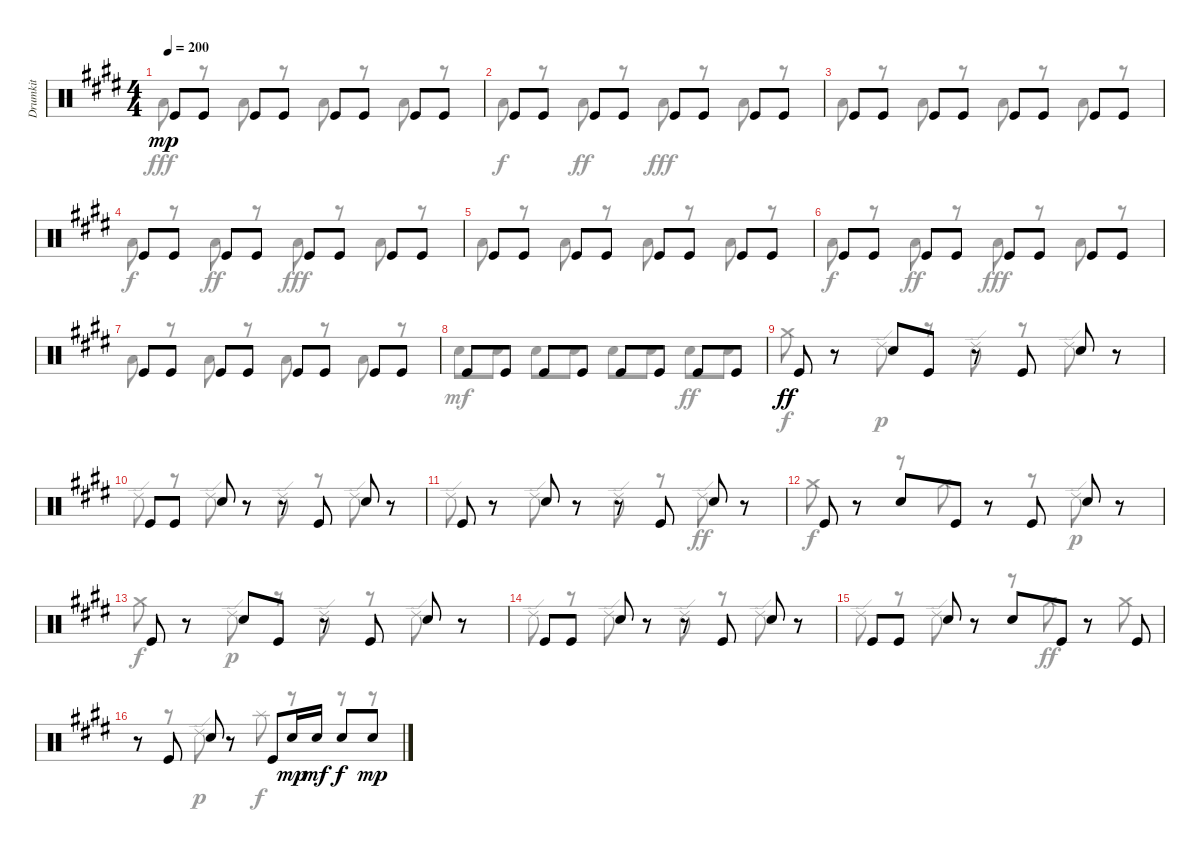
\track ("Drumkit" "Drumkit") {instrument percussion}
\staff {score}
\articulation defaults
\voice
\ts (4 4)
\tempo 200
\clef neutral
\ks c#minor "Kick (hit)".8{dy mp} "Kick (hit)".8 "Kick (hit)".8 "Kick (hit)".8 "Kick (hit)".8 "Kick (hit)".8 "Kick (hit)".8 "Kick (hit)".8
|
"Kick (hit)".8 "Kick (hit)".8 "Kick (hit)".8 "Kick (hit)".8 "Kick (hit)".8 "Kick (hit)".8 "Kick (hit)".8 "Kick (hit)".8 |
"Kick (hit)".8 "Kick (hit)".8 "Kick (hit)".8 "Kick (hit)".8 "Kick (hit)".8 "Kick (hit)".8 "Kick (hit)".8 "Kick (hit)".8 |
"Kick (hit)".8 "Kick (hit)".8 "Kick (hit)".8 "Kick (hit)".8 "Kick (hit)".8 "Kick (hit)".8 "Kick (hit)".8 "Kick (hit)".8 |
"Kick (hit)".8 "Kick (hit)".8 "Kick (hit)".8 "Kick (hit)".8 "Kick (hit)".8 "Kick (hit)".8 "Kick (hit)".8 "Kick (hit)".8 |
"Kick (hit)".8 "Kick (hit)".8 "Kick (hit)".8 "Kick (hit)".8 "Kick (hit)".8 "Kick (hit)".8 "Kick (hit)".8 "Kick (hit)".8 |
"Kick (hit)".8 "Kick (hit)".8 "Kick (hit)".8 "Kick (hit)".8 "Kick (hit)".8 "Kick (hit)".8 "Kick (hit)".8 "Kick (hit)".8 |
"Kick (hit)".8 "Kick (hit)".8 "Kick (hit)".8 "Kick (hit)".8 "Kick (hit)".8 "Kick (hit)".8 "Kick (hit)".8 "Kick (hit)".8 |
"Kick (hit)".8{dy ff} r.8 "Snare (hit) 2".8 "Kick (hit)".8 r.8 "Kick (hit)".8 "Snare (hit) 2".8 r.8 |
"Kick (hit)".8 "Kick (hit)".8 "Snare (hit) 2".8 r.8 r.8 "Kick (hit)".8 "Snare (hit) 2".8 r.8 |
"Kick (hit)".8 r.8 "Snare (hit) 2".8 r.8 r.8 "Kick (hit)".8 "Snare (hit) 2".8 r.8 |
"Kick (hit)".8 r.8 "Snare (hit) 2".8 "Kick (hit)".8 r.8 "Kick (hit)".8 "Snare (hit) 2".8 r.8 |
"Kick (hit)".8 r.8 "Snare (hit) 2".8 "Kick (hit)".8 r.8 "Kick (hit)".8 "Snare (hit) 2".8 r.8 |
"Kick (hit)".8 "Kick (hit)".8 "Snare (hit) 2".8 r.8 r.8 "Kick (hit)".8 "Snare (hit) 2".8 r.8 |
"Kick (hit)".8 "Kick (hit)".8 "Snare (hit) 2".8 r.8 "Snare (hit) 2".8 "Kick (hit)".8 r.8 "Kick (hit)".8 |
r.8 "Kick (hit)".8 "Snare (hit) 2".8 r.8 "Kick (hit)".8 "Snare (hit) 2".16{dy mp} "Snare (hit) 2".16{dy mf} "Snare (hit) 2".8{dy f} "Snare (hit) 2".8{dy mp}
\voice
\clef neutral
\ottava regular
\simile none
\ks c#minor "Low Tom (hit)".8{dy fff}
r.8 "Low Floor Tom (hit)".8 r.8 "Low Tom (hit)".8 r.8 "Low Floor Tom (hit)".8 r.8 |
"Low Tom (hit)".8{dy f} r.8 "Low Tom (hit)".8{dy ff} r.8 "Low Tom (hit)".8{dy fff} r.8 "Low Floor Tom (hit)".8 r.8 |
"Low Tom (hit)".8 r.8 "Low Floor Tom (hit)".8 r.8 "Low Tom (hit)".8 r.8 "Low Floor Tom (hit)".8 r.8 |
"Low Tom (hit)".8{dy f} r.8 "Low Tom (hit)".8{dy ff} r.8 "Low Tom (hit)".8{dy fff} r.8 "Low Floor Tom (hit)".8 r.8 |
"Low Tom (hit)".8 r.8 "Low Floor Tom (hit)".8 r.8 "Low Tom (hit)".8 r.8 "Low Floor Tom (hit)".8 r.8 |
"Low Tom (hit)".8{dy f} r.8 "Low Tom (hit)".8{dy ff} r.8 "Low Tom (hit)".8{dy fff} r.8 "Low Floor Tom (hit)".8 r.8 |
"Low Tom (hit)".8 r.8 "Low Floor Tom (hit)".8 r.8 "Low Tom (hit)".8 r.8 "Low Floor Tom (hit)".8 r.8 |
"Snare (hit) 2".8{dy mf} "Snare (hit) 2".8 "Snare (hit) 2".8 "Snare (hit) 2".8 "Snare (hit) 2".8 "Snare (hit) 2".8 "Snare (hit) 2".8{dy ff} "Snare (hit) 2".8 |
"Crash medium (hit)".8{dy f} r.8 "Ride (edge) 2".8{dy p} r.8 "Ride (edge) 2".8 r.8 "Ride (edge) 2".8 r.8 |
"Ride (edge) 2".8 r.8 "Ride (edge) 2".8 r.8 "Ride (edge) 2".8 r.8 "Ride (edge) 2".8 r.8 |
"Ride (edge) 2".8 r.8 "Ride (edge) 2".8 r.8 "Ride (edge) 2".8 r.8 "Ride (edge) 2".8{dy ff} r.8 |
"Crash medium (hit)".8{dy f} r.8 r.8 "Crash medium (hit)".8 r.8 r.8 "Ride (edge) 2".8{dy p} r.8 |
"Crash medium (hit)".8{dy f} r.8 "Ride (edge) 2".8{dy p} r.8 "Ride (edge) 2".8 r.8 "Ride (edge) 2".8 r.8 |
"Ride (edge) 2".8 r.8 "Ride (edge) 2".8 r.8 "Ride (edge) 2".8 r.8 "Ride (edge) 2".8 r.8 |
"Ride (edge) 2".8 r.8 "Ride (edge) 2".8 r.8 r.8 "Crash medium (hit)".8{dy ff} r.8 "Crash medium (hit)".8 |
r.8 r.8 "Ride (edge) 2".8{dy p} r.8 "Splash (hit)".8{dy f} r.8 r.8 r.8
